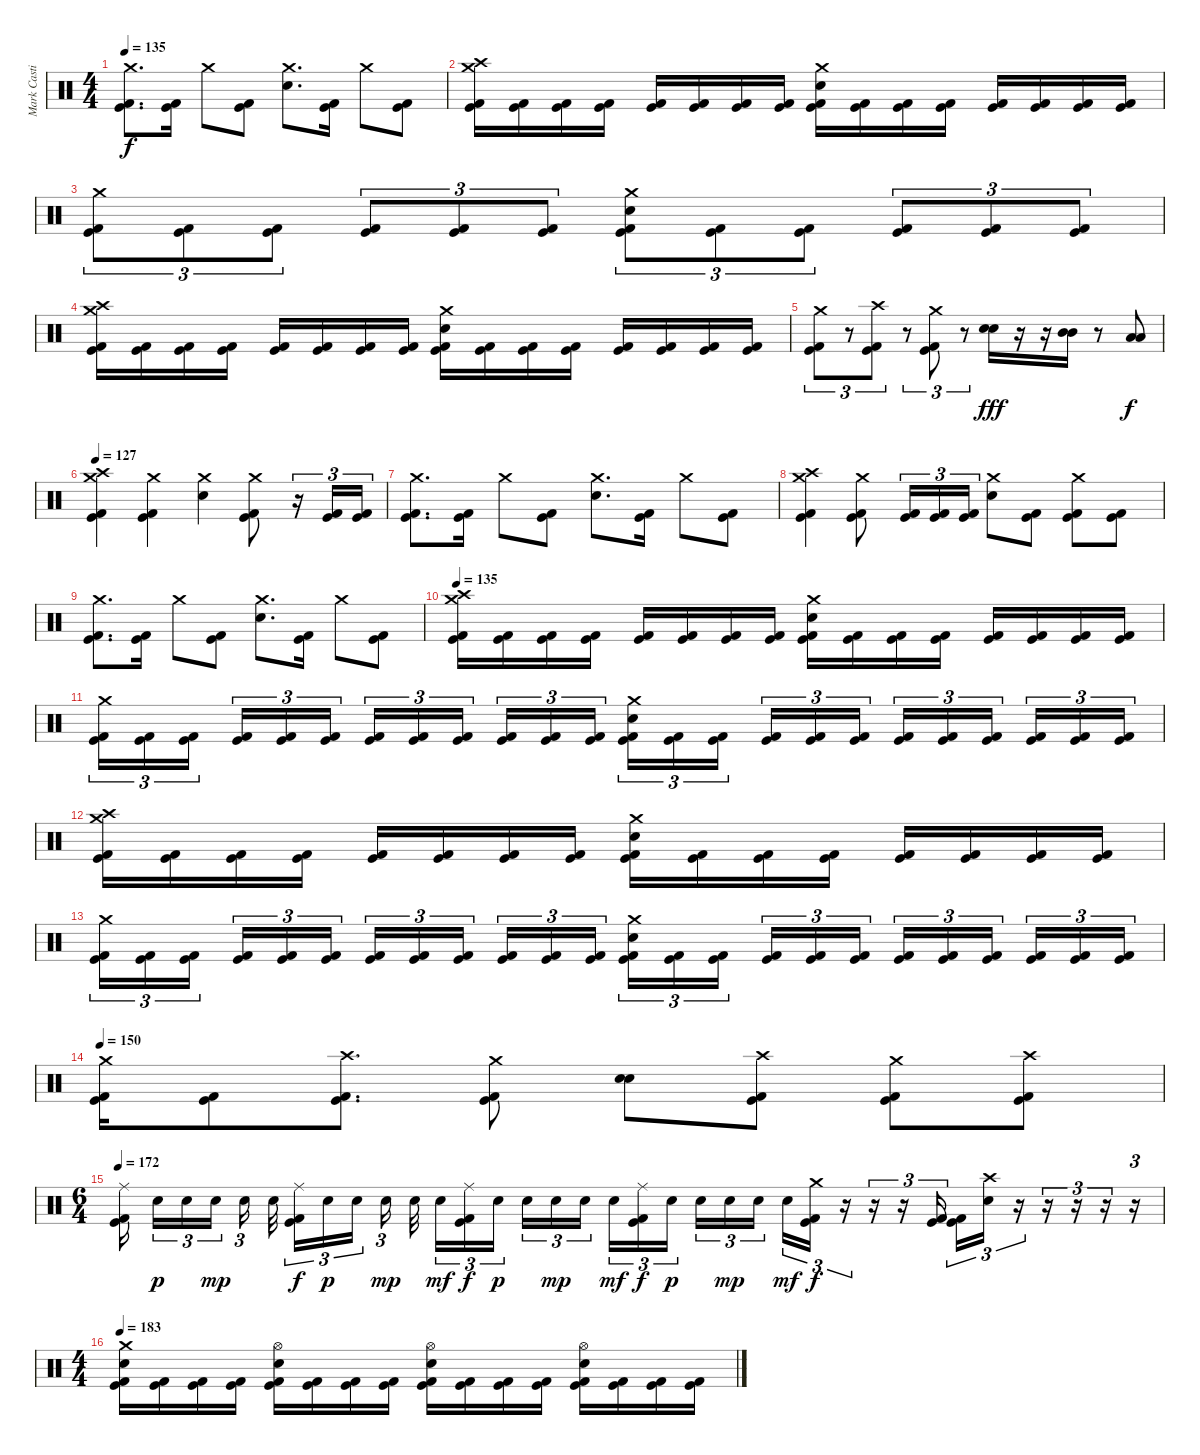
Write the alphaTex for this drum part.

\track ("Mark Castillo" "Mark Casti") {instrument percussion}
\staff {score}
\articulation defaults
\ts (4 4)
\tempo 135
\clef neutral
\ks c
("Crash medium (hit)" "Kick (hit)" "Kick (hit) 2").8{d dy f} ("Kick (hit)" "Kick (hit) 2").16 "Crash medium (hit)".8 ("Kick (hit)" "Kick (hit) 2").8 ("Crash medium (hit)" "Electric Snare (hit)").8{d} ("Kick (hit)" "Kick (hit) 2").16 "Crash medium (hit)".8 ("Kick (hit)" "Kick (hit) 2").8 |
("Crash medium (hit)" "Crash high (hit)" "Kick (hit)" "Kick (hit) 2").16 ("Kick (hit)" "Kick (hit) 2").16 ("Kick (hit)" "Kick (hit) 2").16 ("Kick (hit)" "Kick (hit) 2").16 ("Kick (hit)" "Kick (hit) 2").16 ("Kick (hit)" "Kick (hit) 2").16 ("Kick (hit)" "Kick (hit) 2").16 ("Kick (hit)" "Kick (hit) 2").16 ("Crash medium (hit)" "Electric Snare (hit)" "Kick (hit)" "Kick (hit) 2").16 ("Kick (hit)" "Kick (hit) 2").16 ("Kick (hit)" "Kick (hit) 2").16 ("Kick (hit)" "Kick (hit) 2").16 ("Kick (hit)" "Kick (hit) 2").16 ("Kick (hit)" "Kick (hit) 2").16 ("Kick (hit)" "Kick (hit) 2").16 ("Kick (hit)" "Kick (hit) 2").16 |
("Crash medium (hit)" "Kick (hit)" "Kick (hit) 2").8{tu (3 2)} ("Kick (hit)" "Kick (hit) 2").8{tu (3 2)} ("Kick (hit)" "Kick (hit) 2").8{tu (3 2)} ("Kick (hit)" "Kick (hit) 2").8{tu (3 2)} ("Kick (hit)" "Kick (hit) 2").8{tu (3 2)} ("Kick (hit)" "Kick (hit) 2").8{tu (3 2)} ("Crash medium (hit)" "Electric Snare (hit)" "Kick (hit)" "Kick (hit) 2").8{tu (3 2)} ("Kick (hit)" "Kick (hit) 2").8{tu (3 2)} ("Kick (hit)" "Kick (hit) 2").8{tu (3 2)} ("Kick (hit)" "Kick (hit) 2").8{tu (3 2)} ("Kick (hit)" "Kick (hit) 2").8{tu (3 2)} ("Kick (hit)" "Kick (hit) 2").8{tu (3 2)} |
("Crash medium (hit)" "Crash high (hit)" "Kick (hit)" "Kick (hit) 2").16 ("Kick (hit)" "Kick (hit) 2").16 ("Kick (hit)" "Kick (hit) 2").16 ("Kick (hit)" "Kick (hit) 2").16 ("Kick (hit)" "Kick (hit) 2").16 ("Kick (hit)" "Kick (hit) 2").16 ("Kick (hit)" "Kick (hit) 2").16 ("Kick (hit)" "Kick (hit) 2").16 ("Crash medium (hit)" "Electric Snare (hit)" "Kick (hit)" "Kick (hit) 2").16 ("Kick (hit)" "Kick (hit) 2").16 ("Kick (hit)" "Kick (hit) 2").16 ("Kick (hit)" "Kick (hit) 2").16 ("Kick (hit)" "Kick (hit) 2").16 ("Kick (hit)" "Kick (hit) 2").16 ("Kick (hit)" "Kick (hit) 2").16 ("Kick (hit)" "Kick (hit) 2").16 |
("Crash medium (hit)" "Kick (hit)" "Kick (hit) 2").8{tu (3 2)} r.8{tu (3 2)} ("Crash high (hit)" "Kick (hit)" "Kick (hit) 2").8{tu (3 2)} r.8{tu (3 2)} ("Crash medium (hit)" "Kick (hit)" "Kick (hit) 2").8{tu (3 2)} r.8{tu (3 2)} ("Electric Snare (hit)" "Electric Snare (hit)").16{bu 480 dy fff} r.16 r.16 ("Mid Tom (hit)" "Mid Tom (hit)").16{bu 480} r.8 ("Low Tom (hit)" "Low Tom (hit)").8{bu 480 dy f} |
\tempo 127
("Crash medium (hit)" "Crash high (hit)" "Kick (hit)" "Kick (hit) 2").4 ("Crash medium (hit)" "Kick (hit)" "Kick (hit) 2").4 ("Crash medium (hit)" "Electric Snare (hit)").4 ("Crash medium (hit)" "Kick (hit)" "Kick (hit) 2").8 r.16{tu (3 2)} ("Kick (hit)" "Kick (hit) 2").16{tu (3 2)} ("Kick (hit)" "Kick (hit) 2").16{tu (3 2)} |
("Crash medium (hit)" "Kick (hit)" "Kick (hit) 2").8{d} ("Kick (hit)" "Kick (hit) 2").16 "Crash medium (hit)".8 ("Kick (hit)" "Kick (hit) 2").8 ("Crash medium (hit)" "Electric Snare (hit)").8{d} ("Kick (hit)" "Kick (hit) 2").16 "Crash medium (hit)".8 ("Kick (hit)" "Kick (hit) 2").8 |
("Crash medium (hit)" "Crash high (hit)" "Kick (hit)" "Kick (hit) 2").4 ("Crash medium (hit)" "Kick (hit)" "Kick (hit) 2").8 ("Kick (hit)" "Kick (hit) 2").16{tu (3 2)} ("Kick (hit)" "Kick (hit) 2").16{tu (3 2)} ("Kick (hit)" "Kick (hit) 2").16{tu (3 2)} ("Crash medium (hit)" "Electric Snare (hit)").8 ("Kick (hit)" "Kick (hit) 2").8 ("Crash medium (hit)" "Kick (hit)" "Kick (hit) 2").8 ("Kick (hit)" "Kick (hit) 2").8 |
("Crash medium (hit)" "Kick (hit)" "Kick (hit) 2").8{d} ("Kick (hit)" "Kick (hit) 2").16 "Crash medium (hit)".8 ("Kick (hit)" "Kick (hit) 2").8 ("Crash medium (hit)" "Electric Snare (hit)").8{d} ("Kick (hit)" "Kick (hit) 2").16 "Crash medium (hit)".8 ("Kick (hit)" "Kick (hit) 2").8 |
\tempo 135
("Crash medium (hit)" "Crash high (hit)" "Kick (hit)" "Kick (hit) 2").16 ("Kick (hit)" "Kick (hit) 2").16 ("Kick (hit)" "Kick (hit) 2").16 ("Kick (hit)" "Kick (hit) 2").16 ("Kick (hit)" "Kick (hit) 2").16 ("Kick (hit)" "Kick (hit) 2").16 ("Kick (hit)" "Kick (hit) 2").16 ("Kick (hit)" "Kick (hit) 2").16 ("Crash medium (hit)" "Electric Snare (hit)" "Kick (hit)" "Kick (hit) 2").16 ("Kick (hit)" "Kick (hit) 2").16 ("Kick (hit)" "Kick (hit) 2").16 ("Kick (hit)" "Kick (hit) 2").16 ("Kick (hit)" "Kick (hit) 2").16 ("Kick (hit)" "Kick (hit) 2").16 ("Kick (hit)" "Kick (hit) 2").16 ("Kick (hit)" "Kick (hit) 2").16 |
("Crash medium (hit)" "Kick (hit)" "Kick (hit) 2").16{tu (3 2)} ("Kick (hit)" "Kick (hit) 2").16{tu (3 2)} ("Kick (hit)" "Kick (hit) 2").16{tu (3 2) beam splitsecondary} ("Kick (hit)" "Kick (hit) 2").16{tu (3 2)} ("Kick (hit)" "Kick (hit) 2").16{tu (3 2)} ("Kick (hit)" "Kick (hit) 2").16{tu (3 2)} ("Kick (hit)" "Kick (hit) 2").16{tu (3 2)} ("Kick (hit)" "Kick (hit) 2").16{tu (3 2)} ("Kick (hit)" "Kick (hit) 2").16{tu (3 2) beam splitsecondary} ("Kick (hit)" "Kick (hit) 2").16{tu (3 2)} ("Kick (hit)" "Kick (hit) 2").16{tu (3 2)} ("Kick (hit)" "Kick (hit) 2").16{tu (3 2)} ("Crash medium (hit)" "Electric Snare (hit)" "Kick (hit)" "Kick (hit) 2").16{tu (3 2)} ("Kick (hit)" "Kick (hit) 2").16{tu (3 2)} ("Kick (hit)" "Kick (hit) 2").16{tu (3 2) beam splitsecondary} ("Kick (hit)" "Kick (hit) 2").16{tu (3 2)} ("Kick (hit)" "Kick (hit) 2").16{tu (3 2)} ("Kick (hit)" "Kick (hit) 2").16{tu (3 2)} ("Kick (hit)" "Kick (hit) 2").16{tu (3 2)} ("Kick (hit)" "Kick (hit) 2").16{tu (3 2)} ("Kick (hit)" "Kick (hit) 2").16{tu (3 2) beam splitsecondary} ("Kick (hit)" "Kick (hit) 2").16{tu (3 2)} ("Kick (hit)" "Kick (hit) 2").16{tu (3 2)} ("Kick (hit)" "Kick (hit) 2").16{tu (3 2)} |
("Crash medium (hit)" "Crash high (hit)" "Kick (hit)" "Kick (hit) 2").16 ("Kick (hit)" "Kick (hit) 2").16 ("Kick (hit)" "Kick (hit) 2").16 ("Kick (hit)" "Kick (hit) 2").16 ("Kick (hit)" "Kick (hit) 2").16 ("Kick (hit)" "Kick (hit) 2").16 ("Kick (hit)" "Kick (hit) 2").16 ("Kick (hit)" "Kick (hit) 2").16 ("Crash medium (hit)" "Electric Snare (hit)" "Kick (hit)" "Kick (hit) 2").16 ("Kick (hit)" "Kick (hit) 2").16 ("Kick (hit)" "Kick (hit) 2").16 ("Kick (hit)" "Kick (hit) 2").16 ("Kick (hit)" "Kick (hit) 2").16 ("Kick (hit)" "Kick (hit) 2").16 ("Kick (hit)" "Kick (hit) 2").16 ("Kick (hit)" "Kick (hit) 2").16 |
("Crash medium (hit)" "Kick (hit)" "Kick (hit) 2").16{tu (3 2)} ("Kick (hit)" "Kick (hit) 2").16{tu (3 2)} ("Kick (hit)" "Kick (hit) 2").16{tu (3 2) beam splitsecondary} ("Kick (hit)" "Kick (hit) 2").16{tu (3 2)} ("Kick (hit)" "Kick (hit) 2").16{tu (3 2)} ("Kick (hit)" "Kick (hit) 2").16{tu (3 2)} ("Kick (hit)" "Kick (hit) 2").16{tu (3 2)} ("Kick (hit)" "Kick (hit) 2").16{tu (3 2)} ("Kick (hit)" "Kick (hit) 2").16{tu (3 2) beam splitsecondary} ("Kick (hit)" "Kick (hit) 2").16{tu (3 2)} ("Kick (hit)" "Kick (hit) 2").16{tu (3 2)} ("Kick (hit)" "Kick (hit) 2").16{tu (3 2)} ("Crash medium (hit)" "Electric Snare (hit)" "Kick (hit)" "Kick (hit) 2").16{tu (3 2)} ("Kick (hit)" "Kick (hit) 2").16{tu (3 2)} ("Kick (hit)" "Kick (hit) 2").16{tu (3 2) beam splitsecondary} ("Kick (hit)" "Kick (hit) 2").16{tu (3 2)} ("Kick (hit)" "Kick (hit) 2").16{tu (3 2)} ("Kick (hit)" "Kick (hit) 2").16{tu (3 2)} ("Kick (hit)" "Kick (hit) 2").16{tu (3 2)} ("Kick (hit)" "Kick (hit) 2").16{tu (3 2)} ("Kick (hit)" "Kick (hit) 2").16{tu (3 2) beam splitsecondary} ("Kick (hit)" "Kick (hit) 2").16{tu (3 2)} ("Kick (hit)" "Kick (hit) 2").16{tu (3 2)} ("Kick (hit)" "Kick (hit) 2").16{tu (3 2)} |
\tempo 150
("Crash medium (hit)" "Kick (hit)" "Kick (hit) 2").16 ("Kick (hit)" "Kick (hit) 2").8 ("Crash high (hit)" "Kick (hit)" "Kick (hit) 2").8{d} ("Crash medium (hit)" "Kick (hit)" "Kick (hit) 2").8 ("Electric Snare (hit)" "Electric Snare (hit)").8{bu 480} ("Crash high (hit)" "Kick (hit)" "Kick (hit) 2").8 ("Crash medium (hit)" "Kick (hit)" "Kick (hit) 2").8 ("Crash high (hit)" "Kick (hit)" "Kick (hit) 2").8 |
\ts (6 4)
\tempo 172
("Ride (middle)" "Kick (hit)" "Kick (hit) 2").16{beam splitsecondary} "Electric Snare (hit)".16{tu (3 2) dy p} "Electric Snare (hit)".16{tu (3 2)} "Electric Snare (hit)".16{tu (3 2) dy mp beam splitsecondary} "Electric Snare (hit)".16{tu (3 2) beam splitsecondary} "Electric Snare (hit)".32{beam splitsecondary} ("Ride (middle)" "Kick (hit)" "Kick (hit) 2").16{tu (3 2) dy f} "Electric Snare (hit)".16{tu (3 2) dy p} "Electric Snare (hit)".16{tu (3 2) beam splitsecondary} "Electric Snare (hit)".16{tu (3 2) dy mp beam splitsecondary} "Electric Snare (hit)".32{beam splitsecondary} "Electric Snare (hit)".16{tu (3 2) dy mf} ("Ride (middle)" "Kick (hit)" "Kick (hit) 2").16{tu (3 2) dy f} "Electric Snare (hit)".16{tu (3 2) dy p beam splitsecondary} "Electric Snare (hit)".16{tu (3 2)} "Electric Snare (hit)".16{tu (3 2) dy mp} "Electric Snare (hit)".16{tu (3 2) beam splitsecondary} "Electric Snare (hit)".16{tu (3 2) dy mf} ("Ride (middle)" "Kick (hit)" "Kick (hit) 2").16{tu (3 2) dy f} "Electric Snare (hit)".16{tu (3 2) dy p beam splitsecondary} "Electric Snare (hit)".16{tu (3 2)} "Electric Snare (hit)".16{tu (3 2) dy mp} "Electric Snare (hit)".16{tu (3 2) beam splitsecondary} "Electric Snare (hit)".16{tu (3 2) dy mf} ("Crash medium (hit)" "Kick (hit)" "Kick (hit) 2").16{tu (3 2) dy f} r.16{tu (3 2)} r.16{tu (3 2)} r.16{tu (3 2)} ("Kick (hit)" "Kick (hit) 2").16{tu (3 2) beam splitsecondary} ("Kick (hit)" "Kick (hit) 2").16{tu (3 2)} ("Crash high (hit)" "Electric Snare (hit)").16{tu (3 2)} r.16{tu (3 2)} r.16{tu (3 2)} r.16{tu (3 2)} r.16{tu (3 2)} r.16{tu (3 2)} |
\ts (4 4)
\tempo 183
("Crash medium (hit)" "Electric Snare (hit)" "Kick (hit)" "Kick (hit) 2").16 ("Kick (hit)" "Kick (hit) 2").16 ("Kick (hit)" "Kick (hit) 2").16 ("Kick (hit)" "Kick (hit) 2").16 ("Hi-Hat (open)" "Electric Snare (hit)" "Kick (hit)" "Kick (hit) 2").16 ("Kick (hit)" "Kick (hit) 2").16 ("Kick (hit)" "Kick (hit) 2").16 ("Kick (hit)" "Kick (hit) 2").16 ("Hi-Hat (open)" "Electric Snare (hit)" "Kick (hit)" "Kick (hit) 2").16 ("Kick (hit)" "Kick (hit) 2").16 ("Kick (hit)" "Kick (hit) 2").16 ("Kick (hit)" "Kick (hit) 2").16 ("Hi-Hat (open)" "Electric Snare (hit)" "Kick (hit)" "Kick (hit) 2").16 ("Kick (hit)" "Kick (hit) 2").16 ("Kick (hit)" "Kick (hit) 2").16 ("Kick (hit)" "Kick (hit) 2").16
